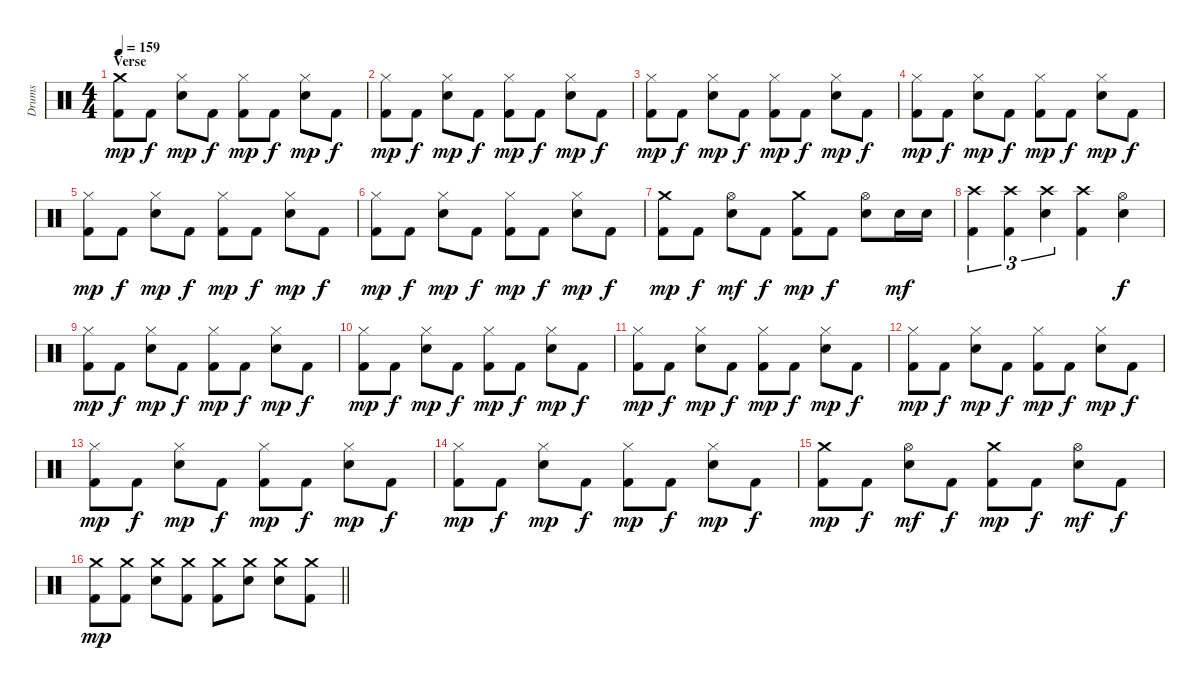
\track ("Drums" "Drums") {instrument percussion}
\staff {score}
\articulation defaults
\ts (4 4)
\section ("" "Verse")
\tempo 159
\clef neutral
\ks c
("Crash medium (hit)" "Kick (hit) 2").8{dy mp} "Kick (hit) 2".8{dy f} ("Hi-Hat (closed)" "Electric Snare (hit)").8{dy mp} "Kick (hit) 2".8{dy f} ("Hi-Hat (closed)" "Kick (hit) 2").8{dy mp} "Kick (hit) 2".8{dy f} ("Hi-Hat (closed)" "Electric Snare (hit)").8{dy mp} "Kick (hit) 2".8{dy f} |
("Hi-Hat (closed)" "Kick (hit) 2").8{dy mp} "Kick (hit) 2".8{dy f} ("Hi-Hat (closed)" "Electric Snare (hit)").8{dy mp} "Kick (hit) 2".8{dy f} ("Hi-Hat (closed)" "Kick (hit) 2").8{dy mp} "Kick (hit) 2".8{dy f} ("Hi-Hat (closed)" "Electric Snare (hit)").8{dy mp} "Kick (hit) 2".8{dy f} |
("Hi-Hat (closed)" "Kick (hit) 2").8{dy mp} "Kick (hit) 2".8{dy f} ("Hi-Hat (closed)" "Electric Snare (hit)").8{dy mp} "Kick (hit) 2".8{dy f} ("Hi-Hat (closed)" "Kick (hit) 2").8{dy mp} "Kick (hit) 2".8{dy f} ("Hi-Hat (closed)" "Electric Snare (hit)").8{dy mp} "Kick (hit) 2".8{dy f} |
("Hi-Hat (closed)" "Kick (hit) 2").8{dy mp} "Kick (hit) 2".8{dy f} ("Hi-Hat (closed)" "Electric Snare (hit)").8{dy mp} "Kick (hit) 2".8{dy f} ("Hi-Hat (closed)" "Kick (hit) 2").8{dy mp} "Kick (hit) 2".8{dy f} ("Hi-Hat (closed)" "Electric Snare (hit)").8{dy mp} "Kick (hit) 2".8{dy f} |
("Hi-Hat (closed)" "Kick (hit) 2").8{dy mp} "Kick (hit) 2".8{dy f} ("Hi-Hat (closed)" "Electric Snare (hit)").8{dy mp} "Kick (hit) 2".8{dy f} ("Hi-Hat (closed)" "Kick (hit) 2").8{dy mp} "Kick (hit) 2".8{dy f} ("Hi-Hat (closed)" "Electric Snare (hit)").8{dy mp} "Kick (hit) 2".8{dy f} |
("Hi-Hat (closed)" "Kick (hit) 2").8{dy mp} "Kick (hit) 2".8{dy f} ("Hi-Hat (closed)" "Electric Snare (hit)").8{dy mp} "Kick (hit) 2".8{dy f} ("Hi-Hat (closed)" "Kick (hit) 2").8{dy mp} "Kick (hit) 2".8{dy f} ("Hi-Hat (closed)" "Electric Snare (hit)").8{dy mp} "Kick (hit) 2".8{dy f} |
("Crash medium (hit)" "Kick (hit) 2").8{dy mp} "Kick (hit) 2".8{dy f} ("Hi-Hat (open)" "Electric Snare (hit)").8{dy mf} "Kick (hit) 2".8{dy f} ("Crash medium (hit)" "Kick (hit) 2").8{dy mp} "Kick (hit) 2".8{dy f} ("Hi-Hat (open)" "Electric Snare (hit)").8 "Electric Snare (hit)".16{dy mf} "Electric Snare (hit)".16 |
("Crash high (hit)" "Kick (hit) 2").4{tu (3 2)} ("Crash high (hit)" "Kick (hit) 2").4{tu (3 2)} ("Crash high (hit)" "Electric Snare (hit)").4{tu (3 2)} ("Crash high (hit)" "Kick (hit) 2").4 ("Hi-Hat (open)" "Electric Snare (hit)").4{dy f} |
("Hi-Hat (closed)" "Kick (hit) 2").8{dy mp} "Kick (hit) 2".8{dy f} ("Hi-Hat (closed)" "Electric Snare (hit)").8{dy mp} "Kick (hit) 2".8{dy f} ("Hi-Hat (closed)" "Kick (hit) 2").8{dy mp} "Kick (hit) 2".8{dy f} ("Hi-Hat (closed)" "Electric Snare (hit)").8{dy mp} "Kick (hit) 2".8{dy f} |
("Hi-Hat (closed)" "Kick (hit) 2").8{dy mp} "Kick (hit) 2".8{dy f} ("Hi-Hat (closed)" "Electric Snare (hit)").8{dy mp} "Kick (hit) 2".8{dy f} ("Hi-Hat (closed)" "Kick (hit) 2").8{dy mp} "Kick (hit) 2".8{dy f} ("Hi-Hat (closed)" "Electric Snare (hit)").8{dy mp} "Kick (hit) 2".8{dy f} |
("Hi-Hat (closed)" "Kick (hit) 2").8{dy mp} "Kick (hit) 2".8{dy f} ("Hi-Hat (closed)" "Electric Snare (hit)").8{dy mp} "Kick (hit) 2".8{dy f} ("Hi-Hat (closed)" "Kick (hit) 2").8{dy mp} "Kick (hit) 2".8{dy f} ("Hi-Hat (closed)" "Electric Snare (hit)").8{dy mp} "Kick (hit) 2".8{dy f} |
("Hi-Hat (closed)" "Kick (hit) 2").8{dy mp} "Kick (hit) 2".8{dy f} ("Hi-Hat (closed)" "Electric Snare (hit)").8{dy mp} "Kick (hit) 2".8{dy f} ("Hi-Hat (closed)" "Kick (hit) 2").8{dy mp} "Kick (hit) 2".8{dy f} ("Hi-Hat (closed)" "Electric Snare (hit)").8{dy mp} "Kick (hit) 2".8{dy f} |
("Hi-Hat (closed)" "Kick (hit) 2").8{dy mp} "Kick (hit) 2".8{dy f} ("Hi-Hat (closed)" "Electric Snare (hit)").8{dy mp} "Kick (hit) 2".8{dy f} ("Hi-Hat (closed)" "Kick (hit) 2").8{dy mp} "Kick (hit) 2".8{dy f} ("Hi-Hat (closed)" "Electric Snare (hit)").8{dy mp} "Kick (hit) 2".8{dy f} |
("Hi-Hat (closed)" "Kick (hit) 2").8{dy mp} "Kick (hit) 2".8{dy f} ("Hi-Hat (closed)" "Electric Snare (hit)").8{dy mp} "Kick (hit) 2".8{dy f} ("Hi-Hat (closed)" "Kick (hit) 2").8{dy mp} "Kick (hit) 2".8{dy f} ("Hi-Hat (closed)" "Electric Snare (hit)").8{dy mp} "Kick (hit) 2".8{dy f} |
("Crash medium (hit)" "Kick (hit) 2").8{dy mp} "Kick (hit) 2".8{dy f} ("Hi-Hat (open)" "Electric Snare (hit)").8{dy mf} "Kick (hit) 2".8{dy f} ("Crash medium (hit)" "Kick (hit) 2").8{dy mp} "Kick (hit) 2".8{dy f} ("Hi-Hat (open)" "Electric Snare (hit)").8{dy mf} "Kick (hit) 2".8{dy f} |
\barLineRight lightlight
("Crash medium (hit)" "Kick (hit) 2").8{dy mp} ("Crash medium (hit)" "Kick (hit) 2").8 ("Crash medium (hit)" "Electric Snare (hit)").8 ("Crash medium (hit)" "Kick (hit) 2").8 ("Crash medium (hit)" "Kick (hit) 2").8 ("Crash medium (hit)" "Electric Snare (hit)").8 ("Crash medium (hit)" "Electric Snare (hit)").8 ("Crash medium (hit)" "Kick (hit) 2").8
